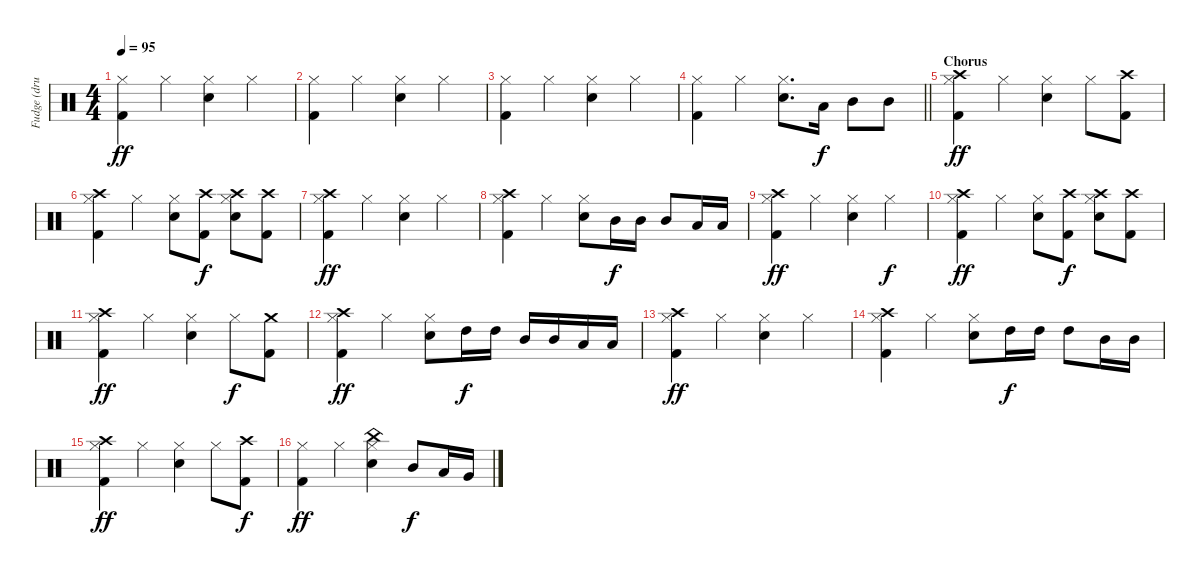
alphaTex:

\track ("Fudge (drums)" "Fudge (dru") {instrument percussion}
\staff {score}
\articulation defaults
\ts (4 4)
\tempo 95
\clef neutral
\ks c
("Kick (hit) 2" "Hi-Hat (closed)").4{dy ff} "Hi-Hat (closed)".4 ("Electric Snare (hit)" "Hi-Hat (closed)").4 "Hi-Hat (closed)".4 |
("Kick (hit) 2" "Hi-Hat (closed)").4 "Hi-Hat (closed)".4 ("Electric Snare (hit)" "Hi-Hat (closed)").4 "Hi-Hat (closed)".4 |
("Kick (hit) 2" "Hi-Hat (closed)").4 "Hi-Hat (closed)".4 ("Electric Snare (hit)" "Hi-Hat (closed)").4 "Hi-Hat (closed)".4 |
\barLineRight lightlight
("Kick (hit) 2" "Hi-Hat (closed)").4 "Hi-Hat (closed)".4 ("Electric Snare (hit)" "Hi-Hat (closed)").8{d} "Low Tom (hit)".16{dy f} "Mid Tom (hit)".8 "Mid Tom (hit)".8 |
\section ("" "Chorus")
("Crash high (hit)" "Kick (hit) 2" "Hi-Hat (closed)").4{dy ff} "Hi-Hat (closed)".4 ("Electric Snare (hit)" "Hi-Hat (closed)").4 "Hi-Hat (closed)".8 ("Crash high (hit)" "Kick (hit) 2").8 |
("Crash high (hit)" "Kick (hit) 2" "Hi-Hat (closed)").4 "Hi-Hat (closed)".4 ("Electric Snare (hit)" "Hi-Hat (closed)").8 ("Crash high (hit)" "Kick (hit) 2").8{dy f} ("Crash high (hit)" "Snare (hit) 2" "Hi-Hat (closed)").8 ("Crash high (hit)" "Kick (hit) 2").8 |
("Crash high (hit)" "Kick (hit) 2" "Hi-Hat (closed)").4{dy ff} "Hi-Hat (closed)".4 ("Electric Snare (hit)" "Hi-Hat (closed)").4 "Hi-Hat (closed)".4 |
("Crash high (hit)" "Kick (hit) 2" "Hi-Hat (closed)").4 "Hi-Hat (closed)".4 ("Electric Snare (hit)" "Hi-Hat (closed)").8 "Mid Tom (hit)".16{dy f} "Mid Tom (hit)".16 "Mid Tom (hit)".8 "Low Tom (hit)".16 "Low Tom (hit)".16 |
("Crash high (hit)" "Kick (hit) 2" "Hi-Hat (closed)").4{dy ff} "Hi-Hat (closed)".4 ("Electric Snare (hit)" "Hi-Hat (closed)").4 "Hi-Hat (closed)".4{dy f} |
("Crash high (hit)" "Kick (hit) 2" "Hi-Hat (closed)").4{dy ff} "Hi-Hat (closed)".4 ("Electric Snare (hit)" "Hi-Hat (closed)").8 ("Crash high (hit)" "Kick (hit) 2").8{dy f} ("Crash high (hit)" "Snare (hit) 2" "Hi-Hat (closed)").8 ("Crash high (hit)" "Kick (hit) 2").8 |
("Crash high (hit)" "Kick (hit) 2" "Hi-Hat (closed)").4{dy ff} "Hi-Hat (closed)".4 ("Electric Snare (hit)" "Hi-Hat (closed)").4 "Hi-Hat (closed)".8{dy f} ("Crash medium (hit)" "Kick (hit) 2").8 |
("Crash high (hit)" "Kick (hit) 2" "Hi-Hat (closed)").4{dy ff} "Hi-Hat (closed)".4 ("Electric Snare (hit)" "Hi-Hat (closed)").8 "High Tom (hit)".16{dy f} "High Tom (hit)".16 "Mid Tom (hit)".16 "Mid Tom (hit)".16 "Low Tom (hit)".16 "Low Tom (hit)".16 |
("Crash high (hit)" "Kick (hit) 2" "Hi-Hat (closed)").4{dy ff} "Hi-Hat (closed)".4 ("Electric Snare (hit)" "Hi-Hat (closed)").4 "Hi-Hat (closed)".4 |
("Crash high (hit)" "Kick (hit) 2" "Hi-Hat (closed)").4 "Hi-Hat (closed)".4 ("Electric Snare (hit)" "Hi-Hat (closed)").8 "High Tom (hit)".16{dy f} "High Tom (hit)".16 "High Tom (hit)".8 "Mid Tom (hit)".16 "Mid Tom (hit)".16 |
("Crash high (hit)" "Kick (hit) 2" "Hi-Hat (closed)").4{dy ff} "Hi-Hat (closed)".4 ("Electric Snare (hit)" "Hi-Hat (closed)").4 "Hi-Hat (closed)".8 ("Crash high (hit)" "Kick (hit) 2").8{dy f} |
("Kick (hit) 2" "Hi-Hat (closed)").4{dy ff} "Hi-Hat (closed)".4 ("China (hit)" "Electric Snare (hit)" "Hi-Hat (closed)").4 "Mid Tom (hit)".8{dy f} "Low Tom (hit)".16 "Very Low Tom (hit)".16
